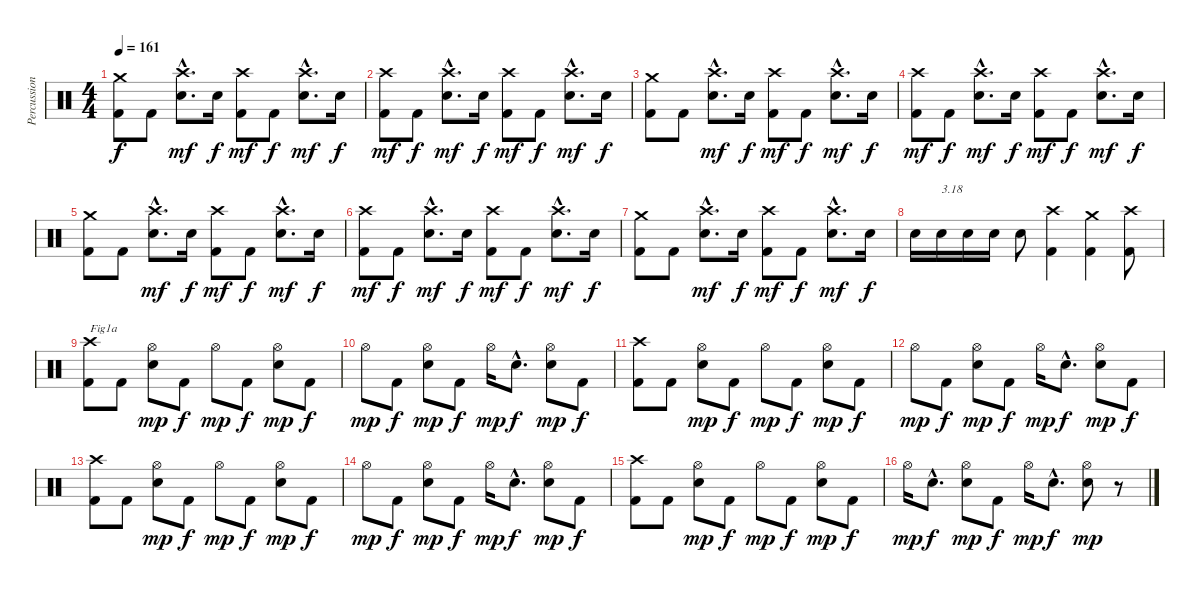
\track ("Percussions" "Percussion") {instrument percussion}
\staff {score}
\articulation defaults
\ts (4 4)
\tempo 161
\clef neutral
\ks c
("Kick (hit) 2" "Crash medium (hit)").8{dy f} "Kick (hit) 2".8 ("Electric Snare (hit)"{hac} "Crash high (hit)"{hac}).8{d dy mf} "Electric Snare (hit)".16{dy f} ("Kick (hit) 2" "Crash high (hit)").8{dy mf} "Kick (hit) 2".8{dy f} ("Electric Snare (hit)"{hac} "Crash high (hit)"{hac}).8{d dy mf} "Electric Snare (hit)".16{dy f} |
("Kick (hit) 2" "Crash high (hit)").8{dy mf} "Kick (hit) 2".8{dy f} ("Electric Snare (hit)"{hac} "Crash high (hit)"{hac}).8{d dy mf} "Electric Snare (hit)".16{dy f} ("Kick (hit) 2" "Crash high (hit)").8{dy mf} "Kick (hit) 2".8{dy f} ("Electric Snare (hit)"{hac} "Crash high (hit)"{hac}).8{d dy mf} "Electric Snare (hit)".16{dy f} |
("Kick (hit) 2" "Crash medium (hit)").8 "Kick (hit) 2".8 ("Electric Snare (hit)"{hac} "Crash high (hit)"{hac}).8{d dy mf} "Electric Snare (hit)".16{dy f} ("Kick (hit) 2" "Crash high (hit)").8{dy mf} "Kick (hit) 2".8{dy f} ("Electric Snare (hit)"{hac} "Crash high (hit)"{hac}).8{d dy mf} "Electric Snare (hit)".16{dy f} |
("Kick (hit) 2" "Crash high (hit)").8{dy mf} "Kick (hit) 2".8{dy f} ("Electric Snare (hit)"{hac} "Crash high (hit)"{hac}).8{d dy mf} "Electric Snare (hit)".16{dy f} ("Kick (hit) 2" "Crash high (hit)").8{dy mf} "Kick (hit) 2".8{dy f} ("Electric Snare (hit)"{hac} "Crash high (hit)"{hac}).8{d dy mf} "Electric Snare (hit)".16{dy f} |
("Kick (hit) 2" "Crash medium (hit)").8 "Kick (hit) 2".8 ("Electric Snare (hit)"{hac} "Crash high (hit)"{hac}).8{d dy mf} "Electric Snare (hit)".16{dy f} ("Kick (hit) 2" "Crash high (hit)").8{dy mf} "Kick (hit) 2".8{dy f} ("Electric Snare (hit)"{hac} "Crash high (hit)"{hac}).8{d dy mf} "Electric Snare (hit)".16{dy f} |
("Kick (hit) 2" "Crash high (hit)").8{dy mf} "Kick (hit) 2".8{dy f} ("Electric Snare (hit)"{hac} "Crash high (hit)"{hac}).8{d dy mf} "Electric Snare (hit)".16{dy f} ("Kick (hit) 2" "Crash high (hit)").8{dy mf} "Kick (hit) 2".8{dy f} ("Electric Snare (hit)"{hac} "Crash high (hit)"{hac}).8{d dy mf} "Electric Snare (hit)".16{dy f} |
("Kick (hit) 2" "Crash medium (hit)").8 "Kick (hit) 2".8 ("Electric Snare (hit)"{hac} "Crash high (hit)"{hac}).8{d dy mf} "Electric Snare (hit)".16{dy f} ("Kick (hit) 2" "Crash high (hit)").8{dy mf} "Kick (hit) 2".8{dy f} ("Electric Snare (hit)"{hac} "Crash high (hit)"{hac}).8{d dy mf} "Electric Snare (hit)".16{dy f} |
"Electric Snare (hit)".16 "Electric Snare (hit)".16{txt "3.18"} "Electric Snare (hit)".16 "Electric Snare (hit)".16 "Electric Snare (hit)".8 ("Kick (hit) 2" "Crash high (hit)").4 ("Kick (hit) 2" "Crash medium (hit)").4 ("Kick (hit) 2" "Crash high (hit)").8 |
("Kick (hit) 2" "Crash high (hit)").8{txt "Fig1a"} "Kick (hit) 2".8 ("Electric Snare (hit)" "Hi-Hat (open)").8{dy mp} "Kick (hit) 2".8{dy f} "Hi-Hat (open)".8{dy mp} "Kick (hit) 2".8{dy f} ("Electric Snare (hit)" "Hi-Hat (open)").8{dy mp} "Kick (hit) 2".8{dy f} |
"Hi-Hat (open)".8{dy mp} "Kick (hit) 2".8{dy f} ("Electric Snare (hit)" "Hi-Hat (open)").8{dy mp} "Kick (hit) 2".8{dy f} "Hi-Hat (open)".16{dy mp} "Electric Snare (hit)"{hac}.8{d dy f} ("Electric Snare (hit)" "Hi-Hat (open)").8{dy mp} "Kick (hit) 2".8{dy f} |
("Kick (hit) 2" "Crash high (hit)").8 "Kick (hit) 2".8 ("Electric Snare (hit)" "Hi-Hat (open)").8{dy mp} "Kick (hit) 2".8{dy f} "Hi-Hat (open)".8{dy mp} "Kick (hit) 2".8{dy f} ("Electric Snare (hit)" "Hi-Hat (open)").8{dy mp} "Kick (hit) 2".8{dy f} |
"Hi-Hat (open)".8{dy mp} "Kick (hit) 2".8{dy f} ("Electric Snare (hit)" "Hi-Hat (open)").8{dy mp} "Kick (hit) 2".8{dy f} "Hi-Hat (open)".16{dy mp} "Electric Snare (hit)"{hac}.8{d dy f} ("Electric Snare (hit)" "Hi-Hat (open)").8{dy mp} "Kick (hit) 2".8{dy f} |
("Kick (hit) 2" "Crash high (hit)").8 "Kick (hit) 2".8 ("Electric Snare (hit)" "Hi-Hat (open)").8{dy mp} "Kick (hit) 2".8{dy f} "Hi-Hat (open)".8{dy mp} "Kick (hit) 2".8{dy f} ("Electric Snare (hit)" "Hi-Hat (open)").8{dy mp} "Kick (hit) 2".8{dy f} |
"Hi-Hat (open)".8{dy mp} "Kick (hit) 2".8{dy f} ("Electric Snare (hit)" "Hi-Hat (open)").8{dy mp} "Kick (hit) 2".8{dy f} "Hi-Hat (open)".16{dy mp} "Electric Snare (hit)"{hac}.8{d dy f} ("Electric Snare (hit)" "Hi-Hat (open)").8{dy mp} "Kick (hit) 2".8{dy f} |
("Kick (hit) 2" "Crash high (hit)").8 "Kick (hit) 2".8 ("Electric Snare (hit)" "Hi-Hat (open)").8{dy mp} "Kick (hit) 2".8{dy f} "Hi-Hat (open)".8{dy mp} "Kick (hit) 2".8{dy f} ("Electric Snare (hit)" "Hi-Hat (open)").8{dy mp} "Kick (hit) 2".8{dy f} |
"Hi-Hat (open)".16{dy mp} "Electric Snare (hit)"{hac}.8{d dy f} ("Electric Snare (hit)" "Hi-Hat (open)").8{dy mp} "Kick (hit) 2".8{dy f} "Hi-Hat (open)".16{dy mp} "Electric Snare (hit)"{hac}.8{d dy f} ("Electric Snare (hit)" "Hi-Hat (open)").8{dy mp} r.8
